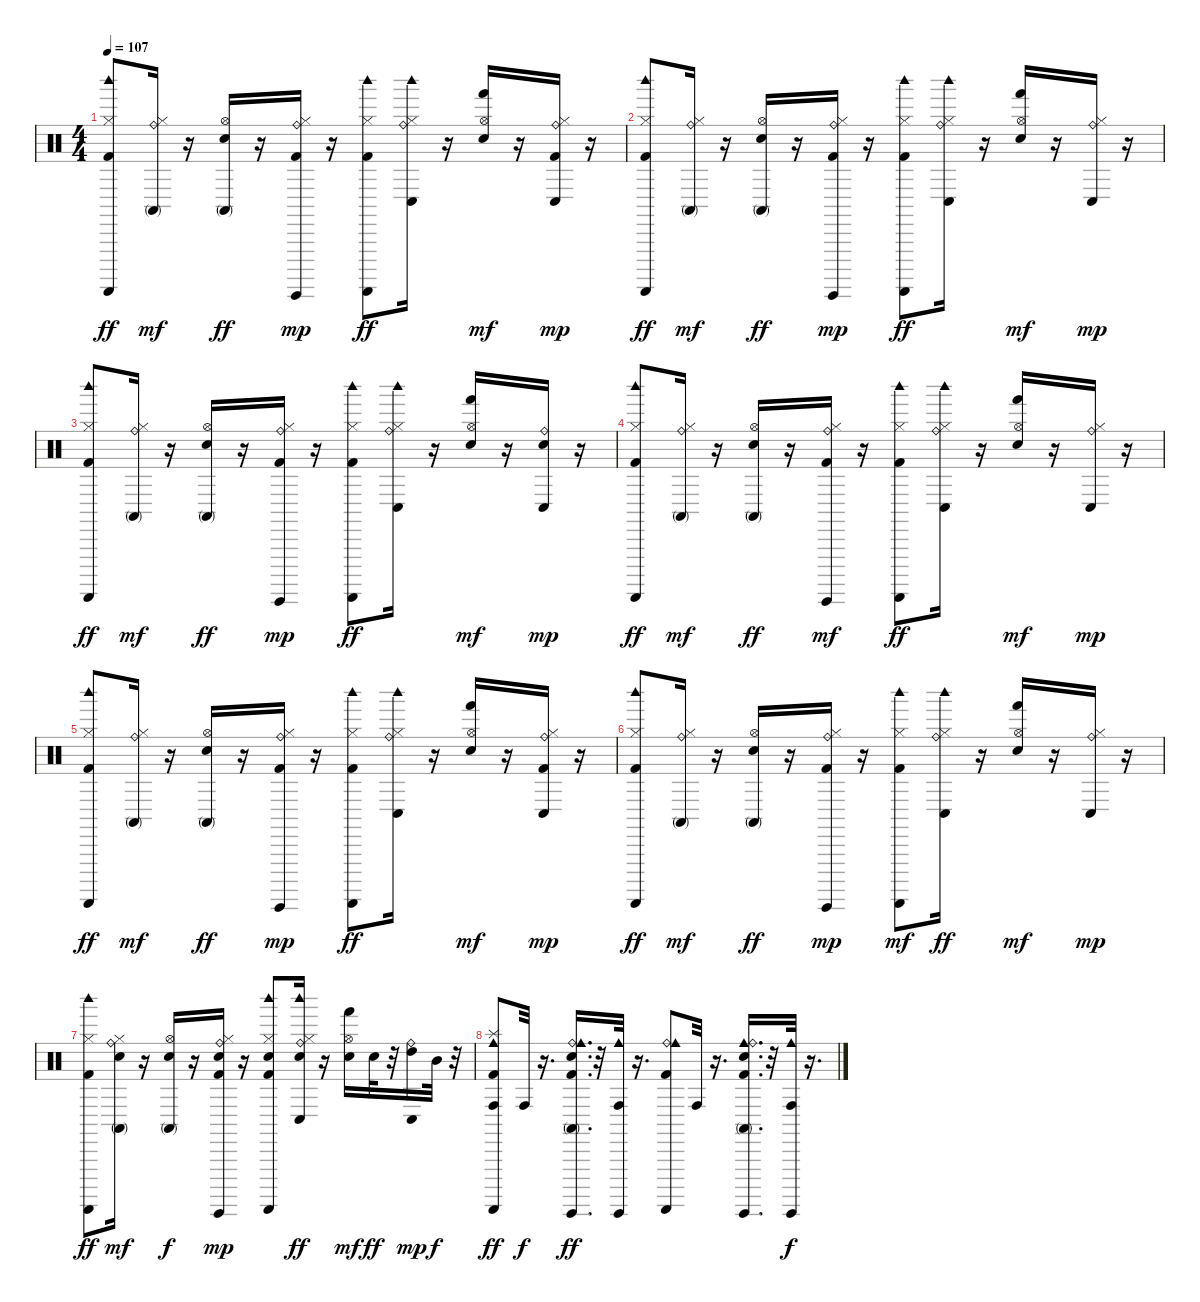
\track "" {instrument percussion}
\staff {score}
\articulation defaults
\ts (4 4)
\tempo 107
\clef neutral
\ks c
("Kick (hit) 2" "Hi-Hat (closed)" "Guiro (scrap-return)" "Woodblock high (hit)").8{dy ff} ("Hi-Hat (closed)" "Ride (bell)" "Conga high (mute)").16{dy mf} r.16 ("Electric Snare (hit)" "Hi-Hat (open)" "Conga high (mute)").16{dy ff} r.16 ("Kick (hit) 2" "Hi-Hat (closed)" "Ride (bell)" "Guiro (hit)").16{dy mp} r.16 ("Kick (hit) 2" "Hi-Hat (closed)" "Guiro (scrap-return)" "Woodblock high (hit)").8{dy ff} ("Hi-Hat (closed)" "Ride (bell)" "Conga low (hit)" "Woodblock high (hit)").16 r.16 ("Electric Snare (hit)" "Hi-Hat (open)" "Hand (hit)").16{dy mf} r.16 ("Kick (hit) 2" "Hi-Hat (closed)" "Ride (bell)" "Conga low (hit)").16{dy mp} r.16 |
("Kick (hit) 2" "Hi-Hat (closed)" "Guiro (scrap-return)" "Woodblock high (hit)").8{dy ff} ("Hi-Hat (closed)" "Ride (bell)" "Conga high (mute)").16{dy mf} r.16 ("Electric Snare (hit)" "Hi-Hat (open)" "Conga high (mute)").16{dy ff} r.16 ("Kick (hit) 2" "Hi-Hat (closed)" "Ride (bell)" "Guiro (hit)").16{dy mp} r.16 ("Kick (hit) 2" "Hi-Hat (closed)" "Guiro (scrap-return)" "Woodblock high (hit)").8{dy ff} ("Woodblock high (hit)" "Hi-Hat (closed)" "Ride (bell)" "Conga low (hit)").16 r.16 ("Electric Snare (hit)" "Hi-Hat (open)" "Hand (hit)").16{dy mf} r.16 ("Hi-Hat (closed)" "Ride (bell)" "Conga low (hit)").16{dy mp} r.16 |
("Kick (hit) 2" "Hi-Hat (closed)" "Guiro (scrap-return)" "Woodblock high (hit)").8{dy ff} ("Hi-Hat (closed)" "Ride (bell)" "Conga high (mute)").16{dy mf} r.16 ("Electric Snare (hit)" "Hi-Hat (open)" "Conga high (mute)").16{dy ff} r.16 ("Kick (hit) 2" "Hi-Hat (closed)" "Ride (bell)" "Guiro (hit)").16{dy mp} r.16 ("Kick (hit) 2" "Hi-Hat (closed)" "Guiro (scrap-return)" "Woodblock high (hit)").8{dy ff} ("Woodblock high (hit)" "Hi-Hat (closed)" "Ride (bell)" "Conga low (hit)").16 r.16 ("Electric Snare (hit)" "Hi-Hat (open)" "Hand (hit)").16{dy mf} r.16 ("Electric Snare (hit)" "Ride (bell)" "Conga low (hit)").16{dy mp} r.16 |
("Kick (hit) 2" "Hi-Hat (closed)" "Guiro (scrap-return)" "Woodblock high (hit)").8{dy ff} ("Hi-Hat (closed)" "Ride (bell)" "Conga high (mute)").16{dy mf} r.16 ("Electric Snare (hit)" "Hi-Hat (open)" "Conga high (mute)").16{dy ff} r.16 ("Kick (hit) 2" "Ride (bell)" "Guiro (hit)" "Hi-Hat (closed)").16{dy mf} r.16 ("Kick (hit) 2" "Hi-Hat (closed)" "Guiro (scrap-return)" "Woodblock high (hit)").8{dy ff} ("Hi-Hat (closed)" "Ride (bell)" "Conga low (hit)" "Woodblock high (hit)").16 r.16 ("Electric Snare (hit)" "Hi-Hat (open)" "Hand (hit)").16{dy mf} r.16 ("Ride (bell)" "Hi-Hat (closed)" "Conga low (hit)").16{dy mp} r.16 |
("Kick (hit) 2" "Hi-Hat (closed)" "Guiro (scrap-return)" "Woodblock high (hit)").8{dy ff} ("Hi-Hat (closed)" "Ride (bell)" "Conga high (mute)").16{dy mf} r.16 ("Electric Snare (hit)" "Hi-Hat (open)" "Conga high (mute)").16{dy ff} r.16 ("Kick (hit) 2" "Hi-Hat (closed)" "Ride (bell)" "Guiro (hit)").16{dy mp} r.16 ("Kick (hit) 2" "Hi-Hat (closed)" "Guiro (scrap-return)" "Woodblock high (hit)").8{dy ff} ("Woodblock high (hit)" "Hi-Hat (closed)" "Ride (bell)" "Conga low (hit)").16 r.16 ("Electric Snare (hit)" "Hi-Hat (open)" "Hand (hit)").16{dy mf} r.16 ("Kick (hit) 2" "Ride (bell)" "Conga low (hit)" "Hi-Hat (closed)").16{dy mp} r.16 |
("Kick (hit) 2" "Hi-Hat (closed)" "Guiro (scrap-return)" "Woodblock high (hit)").8{dy ff} ("Hi-Hat (closed)" "Ride (bell)" "Conga high (mute)").16{dy mf} r.16 ("Electric Snare (hit)" "Hi-Hat (open)" "Conga high (mute)").16{dy ff} r.16 ("Kick (hit) 2" "Hi-Hat (closed)" "Ride (bell)" "Guiro (hit)").16{dy mp} r.16 ("Kick (hit) 2" "Guiro (scrap-return)" "Woodblock high (hit)" "Hi-Hat (closed)").8{dy mf} ("Hi-Hat (closed)" "Ride (bell)" "Conga low (hit)" "Woodblock high (hit)").16{dy ff} r.16 ("Electric Snare (hit)" "Hi-Hat (open)" "Hand (hit)").16{dy mf} r.16 ("Hi-Hat (closed)" "Ride (bell)" "Conga low (hit)").16{dy mp} r.16 |
("Kick (hit) 2" "Hi-Hat (closed)" "Guiro (scrap-return)" "Woodblock high (hit)").8{dy ff} ("Electric Snare (hit)" "Ride (bell)" "Conga high (mute)" "Hi-Hat (closed)").16{dy mf} r.16 ("Electric Snare (hit)" "Hi-Hat (open)" "Conga high (mute)").16{dy f} r.16 ("Kick (hit) 2" "Electric Snare (hit)" "Ride (bell)" "Guiro (hit)" "Hi-Hat (closed)").16{dy mp} r.16 ("Kick (hit) 2" "Electric Snare (hit)" "Guiro (scrap-return)" "Woodblock high (hit)" "Hi-Hat (closed)").8 ("Electric Snare (hit)" "Ride (bell)" "Woodblock high (hit)" "Hi-Hat (closed)" "Conga low (hit)").16{dy ff} r.16 ("Electric Snare (hit)" "Hi-Hat (open)" "Hand (hit)").16{dy mf} "Electric Snare (hit)".32{dy ff} r.32 ("High Tom (hit)" "Ride (bell)" "Conga low (hit)").16{dy mp} "Mid Tom (hit)".32{dy f} r.32 |
("Kick (hit) 2" "Splash (hit)" "Cowbell medium (hit)" "Conga high (hit)" "Guiro (scrap-return)").8{dy ff} "Conga high (hit)".32{dy f} r.16{d} ("Kick (hit) 2" "Electric Snare (hit)" "Ride (bell)" "Cowbell medium (hit)" "Conga high (mute)" "Guiro (hit)").16{d dy ff} r.32 ("Cowbell medium (hit)" "Conga high (hit)" "Guiro (hit)").32 r.16{d} ("Kick (hit) 2" "Ride (bell)" "Cowbell medium (hit)" "Guiro (scrap-return)").8 "Conga high (hit)".32 r.16{d} ("Kick (hit) 2" "Electric Snare (hit)" "Cowbell medium (hit)" "Ride (bell)" "Conga high (mute)" "Guiro (hit)").16{d} r.32 ("Cowbell medium (hit)" "Conga high (hit)" "Guiro (hit)").32{dy f} r.16{d}
